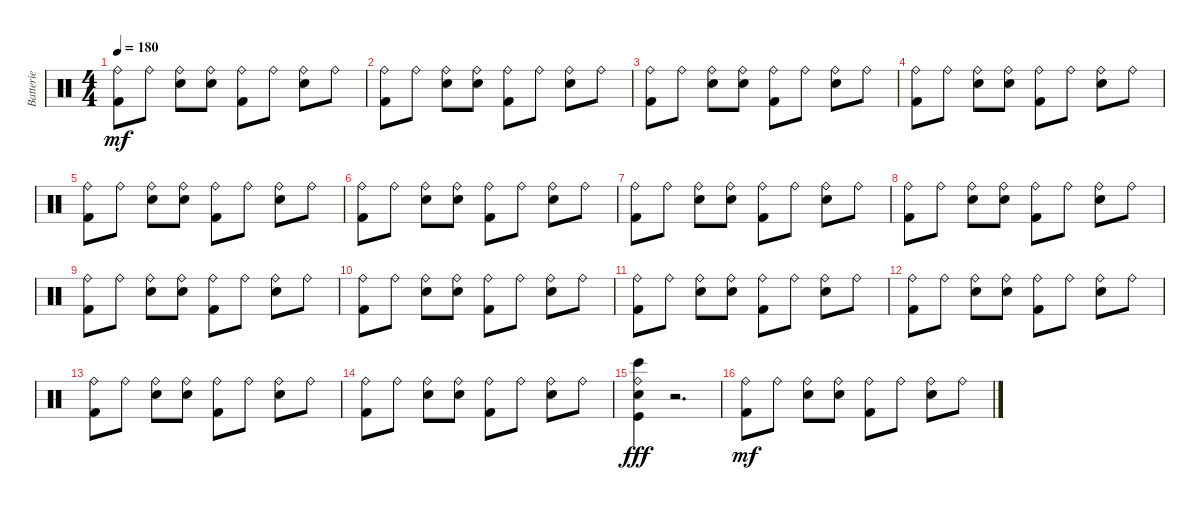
\track ("Batterie" "Batterie") {instrument percussion}
\staff {score}
\articulation defaults
\ts (4 4)
\tempo 180
\clef neutral
\ks c
("Kick (hit) 2" "Ride (bell)").8{dy mf} "Ride (bell)".8 ("Electric Snare (hit)" "Ride (bell)").8 ("Electric Snare (hit)" "Ride (bell)").8 ("Kick (hit) 2" "Ride (bell)").8 "Ride (bell)".8 ("Electric Snare (hit)" "Ride (bell)").8 "Ride (bell)".8 |
("Kick (hit) 2" "Ride (bell)").8 "Ride (bell)".8 ("Electric Snare (hit)" "Ride (bell)").8 ("Electric Snare (hit)" "Ride (bell)").8 ("Kick (hit) 2" "Ride (bell)").8 "Ride (bell)".8 ("Electric Snare (hit)" "Ride (bell)").8 "Ride (bell)".8 |
("Kick (hit) 2" "Ride (bell)").8 "Ride (bell)".8 ("Electric Snare (hit)" "Ride (bell)").8 ("Electric Snare (hit)" "Ride (bell)").8 ("Kick (hit) 2" "Ride (bell)").8 "Ride (bell)".8 ("Electric Snare (hit)" "Ride (bell)").8 "Ride (bell)".8 |
("Kick (hit) 2" "Ride (bell)").8 "Ride (bell)".8 ("Electric Snare (hit)" "Ride (bell)").8 ("Electric Snare (hit)" "Ride (bell)").8 ("Kick (hit) 2" "Ride (bell)").8 "Ride (bell)".8 ("Electric Snare (hit)" "Ride (bell)").8 "Ride (bell)".8 |
("Kick (hit) 2" "Ride (bell)").8 "Ride (bell)".8 ("Electric Snare (hit)" "Ride (bell)").8 ("Electric Snare (hit)" "Ride (bell)").8 ("Kick (hit) 2" "Ride (bell)").8 "Ride (bell)".8 ("Electric Snare (hit)" "Ride (bell)").8 "Ride (bell)".8 |
("Kick (hit) 2" "Ride (bell)").8 "Ride (bell)".8 ("Electric Snare (hit)" "Ride (bell)").8 ("Electric Snare (hit)" "Ride (bell)").8 ("Kick (hit) 2" "Ride (bell)").8 "Ride (bell)".8 ("Electric Snare (hit)" "Ride (bell)").8 "Ride (bell)".8 |
("Kick (hit) 2" "Ride (bell)").8 "Ride (bell)".8 ("Electric Snare (hit)" "Ride (bell)").8 ("Electric Snare (hit)" "Ride (bell)").8 ("Kick (hit) 2" "Ride (bell)").8 "Ride (bell)".8 ("Electric Snare (hit)" "Ride (bell)").8 "Ride (bell)".8 |
("Kick (hit) 2" "Ride (bell)").8 "Ride (bell)".8 ("Electric Snare (hit)" "Ride (bell)").8 ("Electric Snare (hit)" "Ride (bell)").8 ("Kick (hit) 2" "Ride (bell)").8 "Ride (bell)".8 ("Electric Snare (hit)" "Ride (bell)").8 "Ride (bell)".8 |
("Kick (hit) 2" "Ride (bell)").8 "Ride (bell)".8 ("Electric Snare (hit)" "Ride (bell)").8 ("Electric Snare (hit)" "Ride (bell)").8 ("Kick (hit) 2" "Ride (bell)").8 "Ride (bell)".8 ("Electric Snare (hit)" "Ride (bell)").8 "Ride (bell)".8 |
("Kick (hit) 2" "Ride (bell)").8 "Ride (bell)".8 ("Electric Snare (hit)" "Ride (bell)").8 ("Electric Snare (hit)" "Ride (bell)").8 ("Kick (hit) 2" "Ride (bell)").8 "Ride (bell)".8 ("Electric Snare (hit)" "Ride (bell)").8 "Ride (bell)".8 |
("Kick (hit) 2" "Ride (bell)").8 "Ride (bell)".8 ("Electric Snare (hit)" "Ride (bell)").8 ("Electric Snare (hit)" "Ride (bell)").8 ("Kick (hit) 2" "Ride (bell)").8 "Ride (bell)".8 ("Electric Snare (hit)" "Ride (bell)").8 "Ride (bell)".8 |
("Kick (hit) 2" "Ride (bell)").8 "Ride (bell)".8 ("Electric Snare (hit)" "Ride (bell)").8 ("Electric Snare (hit)" "Ride (bell)").8 ("Kick (hit) 2" "Ride (bell)").8 "Ride (bell)".8 ("Electric Snare (hit)" "Ride (bell)").8 "Ride (bell)".8 |
("Kick (hit) 2" "Ride (bell)").8 "Ride (bell)".8 ("Electric Snare (hit)" "Ride (bell)").8 ("Electric Snare (hit)" "Ride (bell)").8 ("Kick (hit) 2" "Ride (bell)").8 "Ride (bell)".8 ("Electric Snare (hit)" "Ride (bell)").8 "Ride (bell)".8 |
("Kick (hit) 2" "Ride (bell)").8 "Ride (bell)".8 ("Electric Snare (hit)" "Ride (bell)").8 ("Electric Snare (hit)" "Ride (bell)").8 ("Kick (hit) 2" "Ride (bell)").8 "Ride (bell)".8 ("Electric Snare (hit)" "Ride (bell)").8 "Ride (bell)".8 |
("Bongo High (hit)" "Electric Snare (hit)" "Kick (hit)" "Ride (bell)").4{dy fff} r.2{d} |
("Kick (hit) 2" "Ride (bell)").8{dy mf} "Ride (bell)".8 ("Electric Snare (hit)" "Ride (bell)").8 ("Electric Snare (hit)" "Ride (bell)").8 ("Kick (hit) 2" "Ride (bell)").8 "Ride (bell)".8 ("Electric Snare (hit)" "Ride (bell)").8 "Ride (bell)".8
